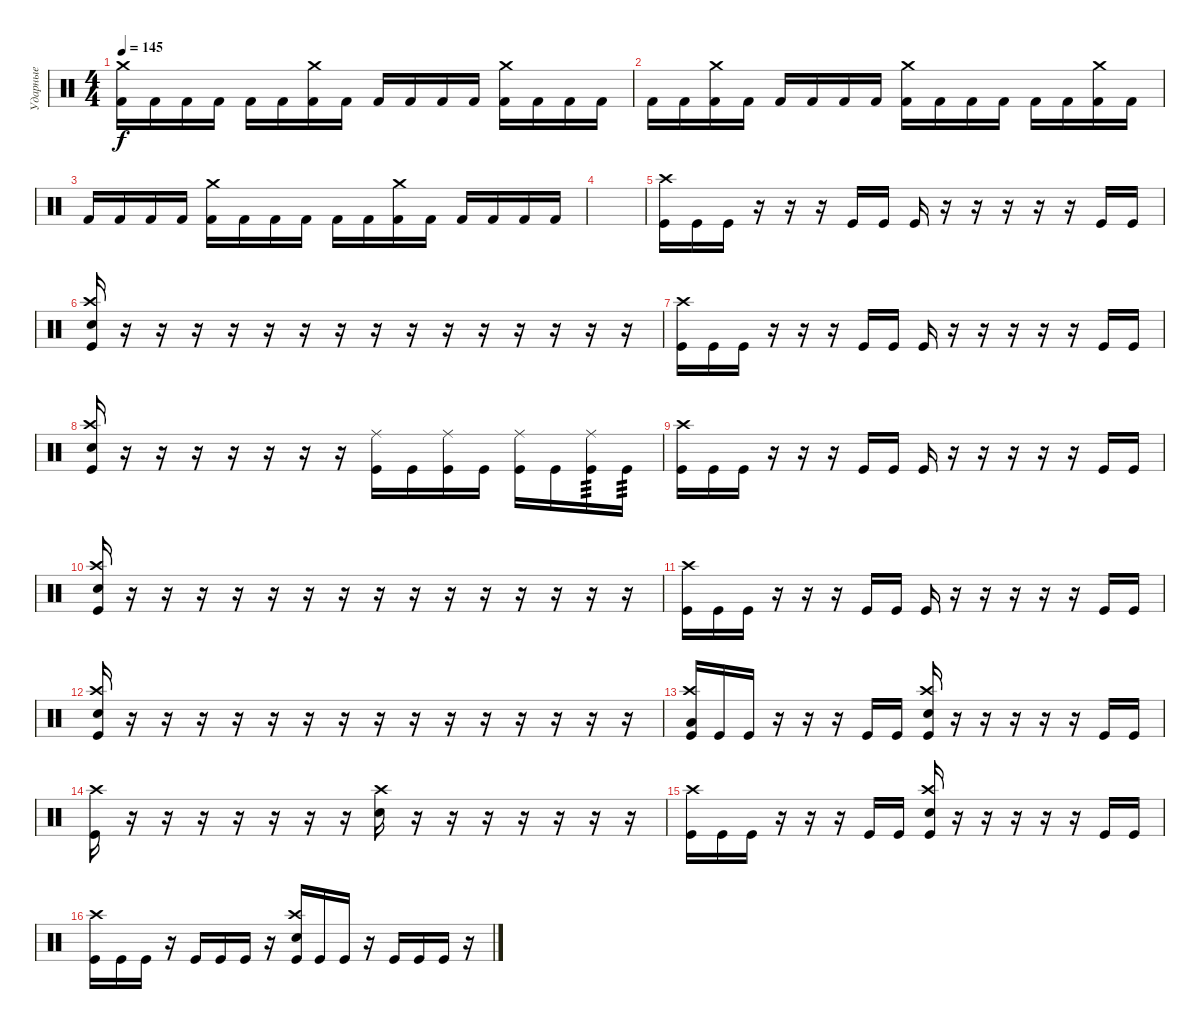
\track ("Ударные" "Ударные") {instrument percussion}
\staff {score}
\articulation defaults
\ts (4 4)
\tempo 145
\clef neutral
\ks c
("Kick (hit) 2" "Crash medium (hit)").16{dy f} "Kick (hit) 2".16 "Kick (hit) 2".16 "Kick (hit) 2".16 "Kick (hit) 2".16 "Kick (hit) 2".16 ("Kick (hit) 2" "Crash medium (hit)").16 "Kick (hit) 2".16 "Kick (hit) 2".16 "Kick (hit) 2".16 "Kick (hit) 2".16 "Kick (hit) 2".16 ("Kick (hit) 2" "Crash medium (hit)").16 "Kick (hit) 2".16 "Kick (hit) 2".16 "Kick (hit) 2".16 |
"Kick (hit) 2".16 "Kick (hit) 2".16 ("Kick (hit) 2" "Crash medium (hit)").16 "Kick (hit) 2".16 "Kick (hit) 2".16 "Kick (hit) 2".16 "Kick (hit) 2".16 "Kick (hit) 2".16 ("Kick (hit) 2" "Crash medium (hit)").16 "Kick (hit) 2".16 "Kick (hit) 2".16 "Kick (hit) 2".16 "Kick (hit) 2".16 "Kick (hit) 2".16 ("Kick (hit) 2" "Crash medium (hit)").16 "Kick (hit) 2".16 |
"Kick (hit) 2".16 "Kick (hit) 2".16 "Kick (hit) 2".16 "Kick (hit) 2".16 ("Kick (hit) 2" "Crash medium (hit)").16 "Kick (hit) 2".16 "Kick (hit) 2".16 "Kick (hit) 2".16 "Kick (hit) 2".16 "Kick (hit) 2".16 ("Kick (hit) 2" "Crash medium (hit)").16 "Kick (hit) 2".16 "Kick (hit) 2".16 "Kick (hit) 2".16 "Kick (hit) 2".16 "Kick (hit) 2".16 |
|
("Kick (hit)" "Crash high (hit)").16 "Kick (hit)".16 "Kick (hit)".16 r.16 r.16 r.16 "Kick (hit)".16 "Kick (hit)".16 "Kick (hit)".16 r.16 r.16 r.16 r.16 r.16 "Kick (hit)".16 "Kick (hit)".16 |
("Kick (hit)" "Snare (hit) 2" "Crash high (hit)").16 r.16 r.16 r.16 r.16 r.16 r.16 r.16 r.16 r.16 r.16 r.16 r.16 r.16 r.16 r.16 |
("Kick (hit)" "Crash high (hit)").16 "Kick (hit)".16 "Kick (hit)".16 r.16 r.16 r.16 "Kick (hit)".16 "Kick (hit)".16 "Kick (hit)".16 r.16 r.16 r.16 r.16 r.16 "Kick (hit)".16 "Kick (hit)".16 |
("Kick (hit)" "Snare (hit) 2" "Crash high (hit)").16 r.16 r.16 r.16 r.16 r.16 r.16 r.16 ("Kick (hit)" "Ride (middle)").16 "Kick (hit)".16 ("Kick (hit)" "Ride (middle)").16 "Kick (hit)".16 ("Kick (hit)" "Ride (middle)").16 "Kick (hit)".16 ("Kick (hit)" "Ride (middle)").16{tp 3} "Kick (hit)".16{tp 3} |
("Kick (hit)" "Crash high (hit)").16 "Kick (hit)".16 "Kick (hit)".16 r.16 r.16 r.16 "Kick (hit)".16 "Kick (hit)".16 "Kick (hit)".16 r.16 r.16 r.16 r.16 r.16 "Kick (hit)".16 "Kick (hit)".16 |
("Kick (hit)" "Snare (hit) 2" "Crash high (hit)").16 r.16 r.16 r.16 r.16 r.16 r.16 r.16 r.16 r.16 r.16 r.16 r.16 r.16 r.16 r.16 |
("Kick (hit)" "Crash high (hit)").16 "Kick (hit)".16 "Kick (hit)".16 r.16 r.16 r.16 "Kick (hit)".16 "Kick (hit)".16 "Kick (hit)".16 r.16 r.16 r.16 r.16 r.16 "Kick (hit)".16 "Kick (hit)".16 |
("Kick (hit)" "Snare (hit) 2" "Crash high (hit)").16 r.16 r.16 r.16 r.16 r.16 r.16 r.16 r.16 r.16 r.16 r.16 r.16 r.16 r.16 r.16 |
("Kick (hit)" "Crash high (hit)" "Low Floor Tom (hit)").16 "Kick (hit)".16 "Kick (hit)".16 r.16 r.16 r.16 "Kick (hit)".16 "Kick (hit)".16 ("Kick (hit)" "Crash high (hit)" "Snare (hit) 2").16 r.16 r.16 r.16 r.16 r.16 "Kick (hit)".16 "Kick (hit)".16 |
("Kick (hit)" "Crash high (hit)").16 r.16 r.16 r.16 r.16 r.16 r.16 r.16 ("Crash high (hit)" "Snare (hit) 2").16 r.16 r.16 r.16 r.16 r.16 r.16 r.16 |
("Kick (hit)" "Crash high (hit)").16 "Kick (hit)".16 "Kick (hit)".16 r.16 r.16 r.16 "Kick (hit)".16 "Kick (hit)".16 ("Kick (hit)" "Crash high (hit)" "Snare (hit) 2").16 r.16 r.16 r.16 r.16 r.16 "Kick (hit)".16 "Kick (hit)".16 |
("Kick (hit)" "Crash high (hit)").16 "Kick (hit)".16 "Kick (hit)".16 r.16 "Kick (hit)".16 "Kick (hit)".16 "Kick (hit)".16 r.16 ("Kick (hit)" "Crash high (hit)" "Snare (hit) 2").16 "Kick (hit)".16 "Kick (hit)".16 r.16 "Kick (hit)".16 "Kick (hit)".16 "Kick (hit)".16 r.16
